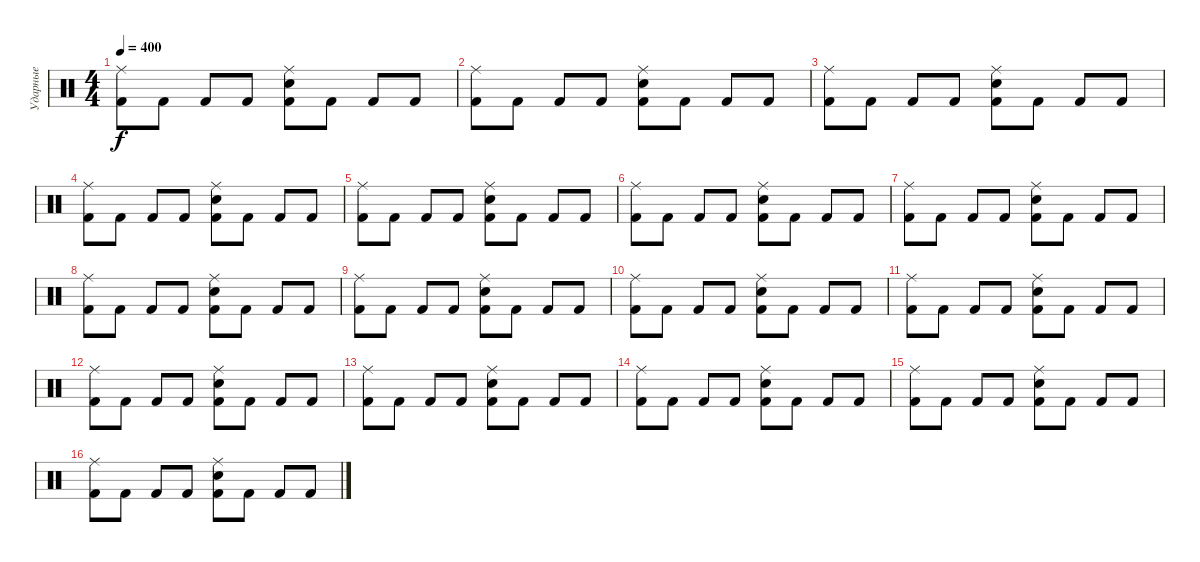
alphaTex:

\track ("Ударные" "Ударные") {instrument percussion}
\staff {score}
\articulation defaults
\ts (4 4)
\tempo 400
\clef neutral
\ks c
("Ride (middle)" "Kick (hit) 2").8{dy f} "Kick (hit) 2".8 "Kick (hit) 2".8 "Kick (hit) 2".8 ("Kick (hit) 2" "Electric Snare (hit)" "Ride (middle)").8 "Kick (hit) 2".8 "Kick (hit) 2".8 "Kick (hit) 2".8 |
("Ride (middle)" "Kick (hit) 2").8 "Kick (hit) 2".8 "Kick (hit) 2".8 "Kick (hit) 2".8 ("Kick (hit) 2" "Electric Snare (hit)" "Ride (middle)").8 "Kick (hit) 2".8 "Kick (hit) 2".8 "Kick (hit) 2".8 |
("Ride (middle)" "Kick (hit) 2").8 "Kick (hit) 2".8 "Kick (hit) 2".8 "Kick (hit) 2".8 ("Kick (hit) 2" "Electric Snare (hit)" "Ride (middle)").8 "Kick (hit) 2".8 "Kick (hit) 2".8 "Kick (hit) 2".8 |
("Ride (middle)" "Kick (hit) 2").8 "Kick (hit) 2".8 "Kick (hit) 2".8 "Kick (hit) 2".8 ("Kick (hit) 2" "Electric Snare (hit)" "Ride (middle)").8 "Kick (hit) 2".8 "Kick (hit) 2".8 "Kick (hit) 2".8 |
("Ride (middle)" "Kick (hit) 2").8 "Kick (hit) 2".8 "Kick (hit) 2".8 "Kick (hit) 2".8 ("Kick (hit) 2" "Electric Snare (hit)" "Ride (middle)").8 "Kick (hit) 2".8 "Kick (hit) 2".8 "Kick (hit) 2".8 |
("Ride (middle)" "Kick (hit) 2").8 "Kick (hit) 2".8 "Kick (hit) 2".8 "Kick (hit) 2".8 ("Kick (hit) 2" "Electric Snare (hit)" "Ride (middle)").8 "Kick (hit) 2".8 "Kick (hit) 2".8 "Kick (hit) 2".8 |
("Ride (middle)" "Kick (hit) 2").8 "Kick (hit) 2".8 "Kick (hit) 2".8 "Kick (hit) 2".8 ("Kick (hit) 2" "Electric Snare (hit)" "Ride (middle)").8 "Kick (hit) 2".8 "Kick (hit) 2".8 "Kick (hit) 2".8 |
("Ride (middle)" "Kick (hit) 2").8 "Kick (hit) 2".8 "Kick (hit) 2".8 "Kick (hit) 2".8 ("Kick (hit) 2" "Electric Snare (hit)" "Ride (middle)").8 "Kick (hit) 2".8 "Kick (hit) 2".8 "Kick (hit) 2".8 |
("Ride (middle)" "Kick (hit) 2").8 "Kick (hit) 2".8 "Kick (hit) 2".8 "Kick (hit) 2".8 ("Kick (hit) 2" "Electric Snare (hit)" "Ride (middle)").8 "Kick (hit) 2".8 "Kick (hit) 2".8 "Kick (hit) 2".8 |
("Ride (middle)" "Kick (hit) 2").8 "Kick (hit) 2".8 "Kick (hit) 2".8 "Kick (hit) 2".8 ("Kick (hit) 2" "Electric Snare (hit)" "Ride (middle)").8 "Kick (hit) 2".8 "Kick (hit) 2".8 "Kick (hit) 2".8 |
("Ride (middle)" "Kick (hit) 2").8 "Kick (hit) 2".8 "Kick (hit) 2".8 "Kick (hit) 2".8 ("Kick (hit) 2" "Electric Snare (hit)" "Ride (middle)").8 "Kick (hit) 2".8 "Kick (hit) 2".8 "Kick (hit) 2".8 |
("Ride (middle)" "Kick (hit) 2").8 "Kick (hit) 2".8 "Kick (hit) 2".8 "Kick (hit) 2".8 ("Kick (hit) 2" "Electric Snare (hit)" "Ride (middle)").8 "Kick (hit) 2".8 "Kick (hit) 2".8 "Kick (hit) 2".8 |
("Ride (middle)" "Kick (hit) 2").8 "Kick (hit) 2".8 "Kick (hit) 2".8 "Kick (hit) 2".8 ("Kick (hit) 2" "Electric Snare (hit)" "Ride (middle)").8 "Kick (hit) 2".8 "Kick (hit) 2".8 "Kick (hit) 2".8 |
("Ride (middle)" "Kick (hit) 2").8 "Kick (hit) 2".8 "Kick (hit) 2".8 "Kick (hit) 2".8 ("Kick (hit) 2" "Electric Snare (hit)" "Ride (middle)").8 "Kick (hit) 2".8 "Kick (hit) 2".8 "Kick (hit) 2".8 |
("Ride (middle)" "Kick (hit) 2").8 "Kick (hit) 2".8 "Kick (hit) 2".8 "Kick (hit) 2".8 ("Kick (hit) 2" "Electric Snare (hit)" "Ride (middle)").8 "Kick (hit) 2".8 "Kick (hit) 2".8 "Kick (hit) 2".8 |
("Ride (middle)" "Kick (hit) 2").8 "Kick (hit) 2".8 "Kick (hit) 2".8 "Kick (hit) 2".8 ("Kick (hit) 2" "Electric Snare (hit)" "Ride (middle)").8 "Kick (hit) 2".8 "Kick (hit) 2".8 "Kick (hit) 2".8
